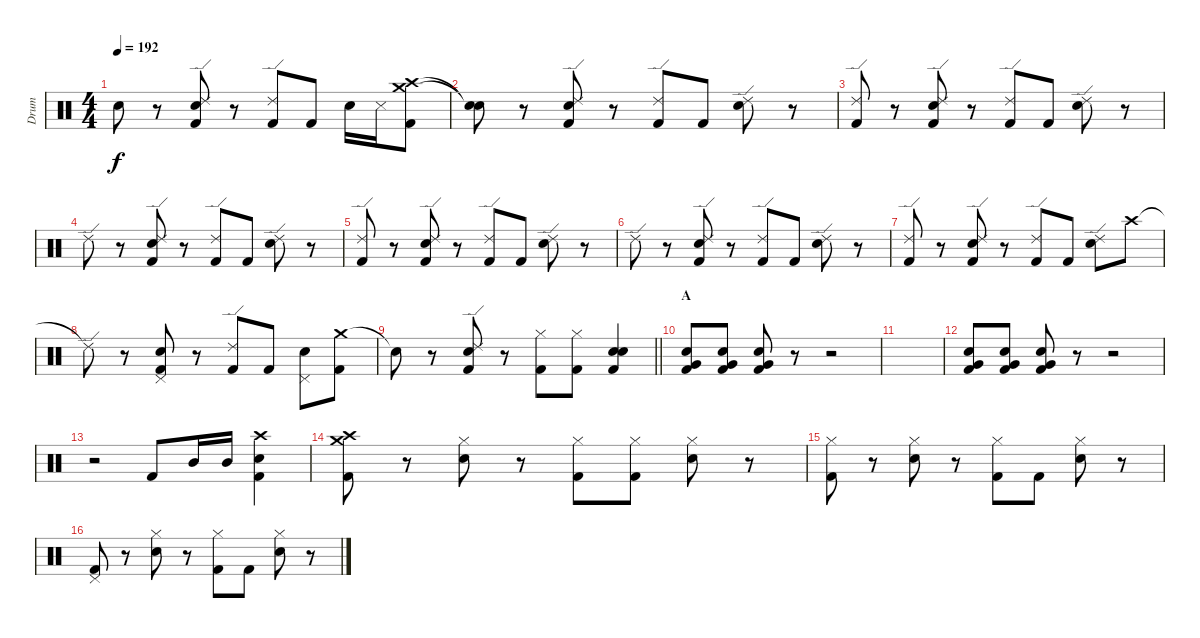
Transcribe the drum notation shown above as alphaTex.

\track ("Drum" "Drum") {instrument percussion}
\staff {score}
\articulation defaults
\ts (4 4)
\tempo 192
\clef neutral
\ks c "Snare (hit)"{t}.8{dy f}
r.8 ("Ride (edge) 2" "Electric Snare (hit)" "Kick (hit) 2").8 r.8 ("Ride (edge) 2" "Kick (hit) 2").8 "Kick (hit) 2".8 "Electric Snare (hit)".16 "Snare (side stick) 3".16 ("Crash high (hit)" "Crash medium (hit)" "Kick (hit) 2").8 |
("Snare (hit)"{t} "Snare (hit)"{t}).8 r.8 ("Ride (edge) 2" "Electric Snare (hit)" "Kick (hit) 2").8 r.8 ("Ride (edge) 2" "Kick (hit) 2").8 "Kick (hit) 2".8 ("Ride (edge) 2" "Electric Snare (hit)").8 r.8 |
("Ride (edge) 2" "Kick (hit) 2").8 r.8 ("Ride (edge) 2" "Electric Snare (hit)" "Kick (hit) 2").8 r.8 ("Ride (edge) 2" "Kick (hit) 2").8 "Kick (hit) 2".8 ("Ride (edge) 2" "Electric Snare (hit)").8 r.8 |
"Ride (edge) 2".8 r.8 ("Ride (edge) 2" "Electric Snare (hit)" "Kick (hit) 2").8 r.8 ("Ride (edge) 2" "Kick (hit) 2").8 "Kick (hit) 2".8 ("Ride (edge) 2" "Electric Snare (hit)").8 r.8 |
("Ride (edge) 2" "Kick (hit) 2").8 r.8 ("Ride (edge) 2" "Electric Snare (hit)" "Kick (hit) 2").8 r.8 ("Ride (edge) 2" "Kick (hit) 2").8 "Kick (hit) 2".8 ("Ride (edge) 2" "Electric Snare (hit)").8 r.8 |
"Ride (edge) 2".8 r.8 ("Ride (edge) 2" "Electric Snare (hit)" "Kick (hit) 2").8 r.8 ("Ride (edge) 2" "Kick (hit) 2").8 "Kick (hit) 2".8 ("Ride (edge) 2" "Electric Snare (hit)").8 r.8 |
("Ride (edge) 2" "Kick (hit) 2").8 r.8 ("Ride (edge) 2" "Electric Snare (hit)" "Kick (hit) 2").8 r.8 ("Ride (edge) 2" "Kick (hit) 2").8 "Kick (hit) 2".8 ("Ride (edge) 2" "Electric Snare (hit)").8 "Crash high (hit)".8 |
"Ride (edge) 2"{t}.8 r.8 ("Pedal Hi-Hat (hit)" "Electric Snare (hit)" "Kick (hit) 2").8 r.8 ("Ride (edge) 2" "Kick (hit) 2").8 "Kick (hit) 2".8 ("Pedal Hi-Hat (hit)" "Electric Snare (hit)").8 ("Crash medium (hit)" "Kick (hit) 2").8 |
\barLineRight lightlight "Snare (hit)"{t}.8
r.8 ("Ride (edge) 2" "Electric Snare (hit)" "Kick (hit) 2").8 r.8 ("Hi-Hat (closed)" "Kick (hit) 2").8 ("Hi-Hat (closed)" "Kick (hit) 2").8 ("Snare (hit) 2" "Electric Snare (hit)" "Kick (hit) 2").4 |
\section ("" "A")
("Very Low Tom (hit)" "Electric Snare (hit)" "Kick (hit) 2").8 ("Very Low Tom (hit)" "Electric Snare (hit)" "Kick (hit) 2").8 ("Very Low Tom (hit)" "Electric Snare (hit)" "Kick (hit) 2").8 r.8 r.2 |
|
("Very Low Tom (hit)" "Electric Snare (hit)" "Kick (hit) 2").8 ("Very Low Tom (hit)" "Electric Snare (hit)" "Kick (hit) 2").8 ("Very Low Tom (hit)" "Electric Snare (hit)" "Kick (hit) 2").8 r.8 r.2 |
r.2 "Kick (hit) 2".8 "Mid Tom (hit)".16 "Mid Tom (hit)".16 ("Crash high (hit)" "Snare (hit) 2" "Kick (hit) 2").4 |
("Crash high (hit)" "Crash medium (hit)" "Kick (hit) 2").8 r.8 ("Hi-Hat (closed)" "Electric Snare (hit)").8 r.8 ("Hi-Hat (closed)" "Kick (hit) 2").8 ("Hi-Hat (closed)" "Kick (hit) 2").8 ("Hi-Hat (closed)" "Electric Snare (hit)").8 r.8 |
("Hi-Hat (closed)" "Kick (hit) 2").8 r.8 ("Hi-Hat (closed)" "Electric Snare (hit)").8 r.8 ("Hi-Hat (closed)" "Kick (hit) 2").8 "Kick (hit) 2".8 ("Hi-Hat (closed)" "Electric Snare (hit)").8 r.8 |
("Pedal Hi-Hat (hit)" "Kick (hit) 2").8 r.8 ("Hi-Hat (closed)" "Electric Snare (hit)").8 r.8 ("Hi-Hat (closed)" "Kick (hit) 2").8 "Kick (hit) 2".8 ("Hi-Hat (closed)" "Electric Snare (hit)").8 r.8
